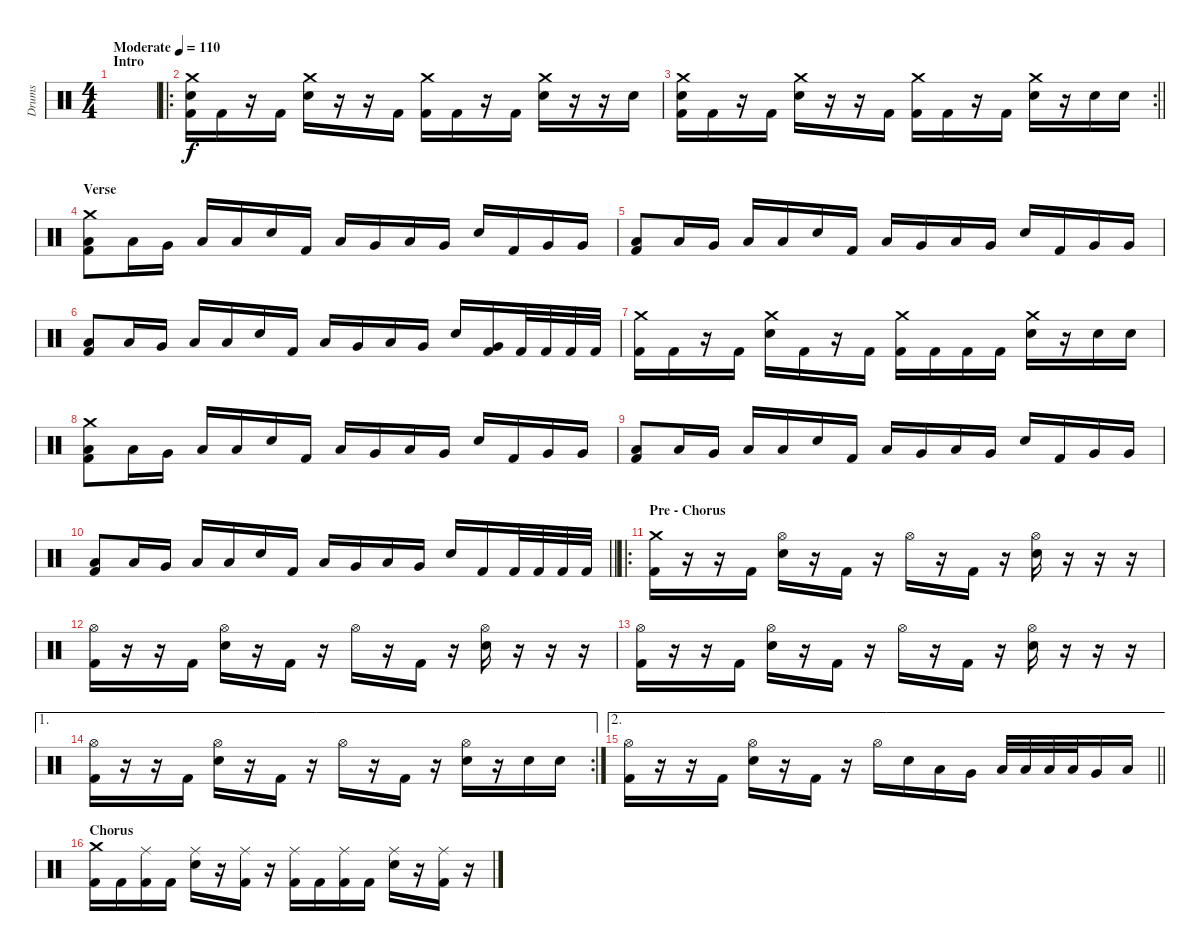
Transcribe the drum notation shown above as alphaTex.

\track ("Drums" "Drums") {instrument percussion}
\staff {score}
\articulation defaults
\ts (4 4)
\section ("" "Intro")
\tempo (110 "Moderate")
\clef neutral
\ks c
|
\ro
("Crash medium (hit)" "Electric Snare (hit)" "Kick (hit) 2").16 "Kick (hit) 2".16 r.16 "Kick (hit) 2".16 ("Crash medium (hit)" "Electric Snare (hit)").16 r.16 r.16 "Kick (hit) 2".16 ("Crash medium (hit)" "Kick (hit) 2").16 "Kick (hit) 2".16 r.16 "Kick (hit) 2".16 ("Crash medium (hit)" "Electric Snare (hit)").16 r.16 r.16 "Electric Snare (hit)".16 |
\rc 2
\barLineRight lightlight
("Crash medium (hit)" "Electric Snare (hit)" "Kick (hit) 2").16 "Kick (hit) 2".16 r.16 "Kick (hit) 2".16 ("Crash medium (hit)" "Electric Snare (hit)").16 r.16 r.16 "Kick (hit) 2".16 ("Crash medium (hit)" "Kick (hit) 2").16 "Kick (hit) 2".16 r.16 "Kick (hit) 2".16 ("Crash medium (hit)" "Electric Snare (hit)").16 r.16 "Electric Snare (hit)".16 "Electric Snare (hit)".16 |
\section ("" "Verse")
("Crash medium (hit)" "Low Tom (hit)" "Kick (hit) 2").8 "Low Tom (hit)".16 "Very Low Tom (hit)".16 "Low Floor Tom (hit)".16 "Low Floor Tom (hit)".16 "Electric Snare (hit)".16 "Kick (hit) 2".16 "Low Floor Tom (hit)".16 "Very Low Tom (hit)".16 "Low Floor Tom (hit)".16 "Very Low Tom (hit)".16 "Electric Snare (hit)".16 "Kick (hit) 2".16 "Very Low Tom (hit)".16 "Very Low Tom (hit)".16 |
("Low Tom (hit)" "Kick (hit) 2").8 "Low Tom (hit)".16 "Very Low Tom (hit)".16 "Low Floor Tom (hit)".16 "Low Floor Tom (hit)".16 "Electric Snare (hit)".16 "Kick (hit) 2".16 "Low Floor Tom (hit)".16 "Very Low Tom (hit)".16 "Low Floor Tom (hit)".16 "Very Low Tom (hit)".16 "Electric Snare (hit)".16 "Kick (hit) 2".16 "Very Low Tom (hit)".16 "Very Low Tom (hit)".16 |
("Low Tom (hit)" "Kick (hit) 2").8 "Low Tom (hit)".16 "Very Low Tom (hit)".16 "Low Floor Tom (hit)".16 "Low Floor Tom (hit)".16 "Electric Snare (hit)".16 "Kick (hit) 2".16 "Low Floor Tom (hit)".16 "Very Low Tom (hit)".16 "Low Floor Tom (hit)".16 "Very Low Tom (hit)".16 "Electric Snare (hit)".16 ("Very Low Tom (hit)" "Kick (hit) 2").16 "Kick (hit) 2".32 "Kick (hit) 2".32 "Kick (hit) 2".32 "Kick (hit) 2".32 |
("Crash medium (hit)" "Kick (hit) 2").16 "Kick (hit) 2".16 r.16 "Kick (hit) 2".16 ("Crash medium (hit)" "Electric Snare (hit)").16 "Kick (hit) 2".16 r.16 "Kick (hit) 2".16 ("Crash medium (hit)" "Kick (hit) 2").16 "Kick (hit) 2".16 "Kick (hit) 2".16 "Kick (hit) 2".16 ("Crash medium (hit)" "Electric Snare (hit)").16 r.16 "Electric Snare (hit)".16 "Electric Snare (hit)".16 |
("Crash medium (hit)" "Low Tom (hit)" "Kick (hit) 2").8 "Low Tom (hit)".16 "Very Low Tom (hit)".16 "Low Floor Tom (hit)".16 "Low Floor Tom (hit)".16 "Electric Snare (hit)".16 "Kick (hit) 2".16 "Low Floor Tom (hit)".16 "Very Low Tom (hit)".16 "Low Floor Tom (hit)".16 "Very Low Tom (hit)".16 "Electric Snare (hit)".16 "Kick (hit) 2".16 "Very Low Tom (hit)".16 "Very Low Tom (hit)".16 |
("Low Tom (hit)" "Kick (hit) 2").8 "Low Tom (hit)".16 "Very Low Tom (hit)".16 "Low Floor Tom (hit)".16 "Low Floor Tom (hit)".16 "Electric Snare (hit)".16 "Kick (hit) 2".16 "Low Floor Tom (hit)".16 "Very Low Tom (hit)".16 "Low Floor Tom (hit)".16 "Very Low Tom (hit)".16 "Electric Snare (hit)".16 "Kick (hit) 2".16 "Very Low Tom (hit)".16 "Very Low Tom (hit)".16 |
\barLineRight lightlight
("Low Tom (hit)" "Kick (hit) 2").8 "Low Tom (hit)".16 "Very Low Tom (hit)".16 "Low Floor Tom (hit)".16 "Low Floor Tom (hit)".16 "Electric Snare (hit)".16 "Kick (hit) 2".16 "Low Floor Tom (hit)".16 "Very Low Tom (hit)".16 "Low Floor Tom (hit)".16 "Very Low Tom (hit)".16 "Electric Snare (hit)".16 "Kick (hit) 2".16 "Kick (hit) 2".32 "Kick (hit) 2".32 "Kick (hit) 2".32 "Kick (hit) 2".32 |
\ro
\section ("" "Pre - Chorus")
("Crash medium (hit)" "Kick (hit) 2").16 r.16 r.16 "Kick (hit) 2".16 ("Hi-Hat (open)" "Electric Snare (hit)").16 r.16 "Kick (hit) 2".16 r.16 "Hi-Hat (open)".16 r.16 "Kick (hit) 2".16 r.16 ("Hi-Hat (open)" "Electric Snare (hit)").16 r.16 r.16 r.16 |
("Hi-Hat (open)" "Kick (hit) 2").16 r.16 r.16 "Kick (hit) 2".16 ("Hi-Hat (open)" "Electric Snare (hit)").16 r.16 "Kick (hit) 2".16 r.16 "Hi-Hat (open)".16 r.16 "Kick (hit) 2".16 r.16 ("Hi-Hat (open)" "Electric Snare (hit)").16 r.16 r.16 r.16 |
("Hi-Hat (open)" "Kick (hit) 2").16 r.16 r.16 "Kick (hit) 2".16 ("Hi-Hat (open)" "Electric Snare (hit)").16 r.16 "Kick (hit) 2".16 r.16 "Hi-Hat (open)".16 r.16 "Kick (hit) 2".16 r.16 ("Hi-Hat (open)" "Electric Snare (hit)").16 r.16 r.16 r.16 |
\ae 1
\rc 2
("Hi-Hat (open)" "Kick (hit) 2").16 r.16 r.16 "Kick (hit) 2".16 ("Hi-Hat (open)" "Electric Snare (hit)").16 r.16 "Kick (hit) 2".16 r.16 "Hi-Hat (open)".16 r.16 "Kick (hit) 2".16 r.16 ("Hi-Hat (open)" "Electric Snare (hit)").16 r.16 "Electric Snare (hit)".16 "Electric Snare (hit)".16 |
\ae 2
\barLineRight lightlight
("Hi-Hat (open)" "Kick (hit) 2").16 r.16 r.16 "Kick (hit) 2".16 ("Hi-Hat (open)" "Electric Snare (hit)").16 r.16 "Kick (hit) 2".16 r.16 "Hi-Hat (open)".16 "Electric Snare (hit)".16 "Low Tom (hit)".16 "Very Low Tom (hit)".16 "Low Floor Tom (hit)".32 "Low Floor Tom (hit)".32 "Low Floor Tom (hit)".32 "Low Tom (hit)".32 "Very Low Tom (hit)".16 "Low Floor Tom (hit)".16 |
\section ("" "Chorus")
("Crash medium (hit)" "Kick (hit) 2").16 "Kick (hit) 2".16 ("Ride (middle)" "Kick (hit) 2").16 "Kick (hit) 2".16 ("Ride (middle)" "Electric Snare (hit)").16 r.16 ("Ride (middle)" "Kick (hit) 2").16 r.16 ("Ride (middle)" "Kick (hit) 2").16 "Kick (hit) 2".16 ("Ride (middle)" "Kick (hit) 2").16 "Kick (hit) 2".16 ("Ride (middle)" "Electric Snare (hit)").16 r.16 ("Ride (middle)" "Kick (hit) 2").16 r.16
